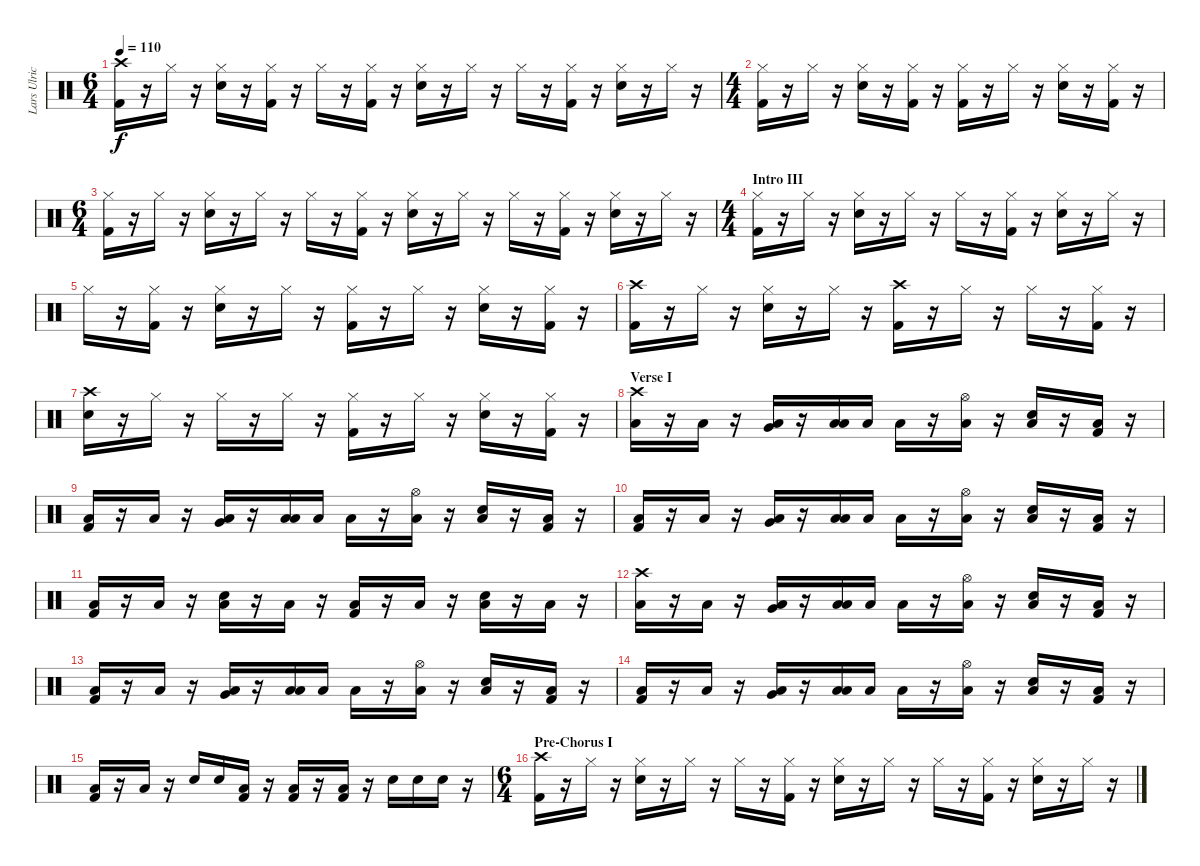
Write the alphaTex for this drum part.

\track ("Lars Ulrich - Drums" "Lars Ulric") {instrument percussion}
\staff {score}
\articulation defaults
\ts (6 4)
\tempo 110
\clef neutral
\ks c
("Crash high (hit)" "Kick (hit) 2").16{dy f} r.16 "Hi-Hat (closed)".16 r.16 ("Hi-Hat (closed)" "Snare (hit) 2").16 r.16 ("Hi-Hat (closed)" "Kick (hit) 2").16 r.16 "Hi-Hat (closed)".16 r.16 ("Hi-Hat (closed)" "Kick (hit) 2").16 r.16 ("Hi-Hat (closed)" "Snare (hit) 2").16 r.16 "Hi-Hat (closed)".16 r.16 "Hi-Hat (closed)".16 r.16 ("Hi-Hat (closed)" "Kick (hit) 2").16 r.16 ("Hi-Hat (closed)" "Snare (hit) 2").16 r.16 "Hi-Hat (closed)".16 r.16 |
\ts (4 4)
("Hi-Hat (closed)" "Kick (hit) 2").16 r.16 "Hi-Hat (closed)".16 r.16 ("Hi-Hat (closed)" "Snare (hit) 2").16 r.16 ("Hi-Hat (closed)" "Kick (hit) 2").16 r.16 ("Hi-Hat (closed)" "Kick (hit) 2").16 r.16 "Hi-Hat (closed)".16 r.16 ("Hi-Hat (closed)" "Snare (hit) 2").16 r.16 ("Hi-Hat (closed)" "Kick (hit) 2").16 r.16 |
\ts (6 4)
("Hi-Hat (closed)" "Kick (hit) 2").16 r.16 "Hi-Hat (closed)".16 r.16 ("Hi-Hat (closed)" "Snare (hit) 2").16 r.16 "Hi-Hat (closed)".16 r.16 "Hi-Hat (closed)".16 r.16 ("Hi-Hat (closed)" "Kick (hit) 2").16 r.16 ("Hi-Hat (closed)" "Snare (hit) 2").16 r.16 "Hi-Hat (closed)".16 r.16 "Hi-Hat (closed)".16 r.16 ("Hi-Hat (closed)" "Kick (hit) 2").16 r.16 ("Hi-Hat (closed)" "Snare (hit) 2").16 r.16 "Hi-Hat (closed)".16 r.16 |
\ts (4 4)
\section ("" "Intro III")
("Hi-Hat (closed)" "Kick (hit) 2").16 r.16 "Hi-Hat (closed)".16 r.16 ("Hi-Hat (closed)" "Snare (hit) 2").16 r.16 "Hi-Hat (closed)".16 r.16 "Hi-Hat (closed)".16 r.16 ("Hi-Hat (closed)" "Kick (hit) 2").16 r.16 ("Hi-Hat (closed)" "Snare (hit) 2").16 r.16 "Hi-Hat (closed)".16 r.16 |
"Hi-Hat (closed)".16 r.16 ("Hi-Hat (closed)" "Kick (hit) 2").16 r.16 ("Hi-Hat (closed)" "Snare (hit) 2").16 r.16 "Hi-Hat (closed)".16 r.16 ("Hi-Hat (closed)" "Kick (hit) 2").16 r.16 "Hi-Hat (closed)".16 r.16 ("Hi-Hat (closed)" "Snare (hit) 2").16 r.16 ("Hi-Hat (closed)" "Kick (hit) 2").16 r.16 |
("Crash high (hit)" "Kick (hit) 2").16 r.16 "Hi-Hat (closed)".16 r.16 ("Hi-Hat (closed)" "Snare (hit) 2").16 r.16 "Hi-Hat (closed)".16 r.16 ("Crash high (hit)" "Kick (hit) 2").16 r.16 "Hi-Hat (closed)".16 r.16 "Hi-Hat (closed)".16 r.16 ("Hi-Hat (closed)" "Kick (hit) 2").16 r.16 |
("Crash high (hit)" "Snare (hit) 2").16 r.16 "Hi-Hat (closed)".16 r.16 "Hi-Hat (closed)".16 r.16 "Hi-Hat (closed)".16 r.16 ("Hi-Hat (closed)" "Kick (hit) 2").16 r.16 "Hi-Hat (closed)".16 r.16 ("Hi-Hat (closed)" "Snare (hit) 2").16 r.16 ("Hi-Hat (closed)" "Kick (hit) 2").16 r.16 |
\section ("" "Verse I")
("Crash high (hit)" "Low Floor Tom (hit)").16 r.16 "Low Floor Tom (hit)".16 r.16 ("Very Low Tom (hit)" "Low Floor Tom (hit)").16 r.16 ("Low Tom (hit)" "Low Floor Tom (hit)").16 "Low Tom (hit)".16 "Low Floor Tom (hit)".16 r.16 ("Hi-Hat (open)" "Low Floor Tom (hit)").16 r.16 ("Snare (hit) 2" "Low Floor Tom (hit)").16 r.16 ("Kick (hit) 2" "Low Floor Tom (hit)").16 r.16 |
("Kick (hit) 2" "Low Floor Tom (hit)").16 r.16 "Low Floor Tom (hit)".16 r.16 ("Very Low Tom (hit)" "Low Floor Tom (hit)").16 r.16 ("Low Tom (hit)" "Low Floor Tom (hit)").16 "Low Tom (hit)".16 "Low Floor Tom (hit)".16 r.16 ("Hi-Hat (open)" "Low Floor Tom (hit)").16 r.16 ("Snare (hit) 2" "Low Floor Tom (hit)").16 r.16 ("Kick (hit) 2" "Low Floor Tom (hit)").16 r.16 |
("Kick (hit) 2" "Low Floor Tom (hit)").16 r.16 "Low Floor Tom (hit)".16 r.16 ("Very Low Tom (hit)" "Low Floor Tom (hit)").16 r.16 ("Low Tom (hit)" "Low Floor Tom (hit)").16 "Low Tom (hit)".16 "Low Floor Tom (hit)".16 r.16 ("Hi-Hat (open)" "Low Floor Tom (hit)").16 r.16 ("Snare (hit) 2" "Low Floor Tom (hit)").16 r.16 ("Kick (hit) 2" "Low Floor Tom (hit)").16 r.16 |
("Kick (hit) 2" "Low Floor Tom (hit)").16 r.16 "Low Floor Tom (hit)".16 r.16 ("Snare (hit) 2" "Low Floor Tom (hit)").16 r.16 "Low Floor Tom (hit)".16 r.16 ("Kick (hit) 2" "Low Floor Tom (hit)").16 r.16 "Low Floor Tom (hit)".16 r.16 ("Snare (hit) 2" "Low Floor Tom (hit)").16 r.16 "Low Floor Tom (hit)".16 r.16 |
("Crash high (hit)" "Low Floor Tom (hit)").16 r.16 "Low Floor Tom (hit)".16 r.16 ("Very Low Tom (hit)" "Low Floor Tom (hit)").16 r.16 ("Low Tom (hit)" "Low Floor Tom (hit)").16 "Low Tom (hit)".16 "Low Floor Tom (hit)".16 r.16 ("Hi-Hat (open)" "Low Floor Tom (hit)").16 r.16 ("Snare (hit) 2" "Low Floor Tom (hit)").16 r.16 ("Kick (hit) 2" "Low Floor Tom (hit)").16 r.16 |
("Kick (hit) 2" "Low Floor Tom (hit)").16 r.16 "Low Floor Tom (hit)".16 r.16 ("Very Low Tom (hit)" "Low Floor Tom (hit)").16 r.16 ("Low Tom (hit)" "Low Floor Tom (hit)").16 "Low Tom (hit)".16 "Low Floor Tom (hit)".16 r.16 ("Hi-Hat (open)" "Low Floor Tom (hit)").16 r.16 ("Snare (hit) 2" "Low Floor Tom (hit)").16 r.16 ("Kick (hit) 2" "Low Floor Tom (hit)").16 r.16 |
("Kick (hit) 2" "Low Floor Tom (hit)").16 r.16 "Low Floor Tom (hit)".16 r.16 ("Very Low Tom (hit)" "Low Floor Tom (hit)").16 r.16 ("Low Tom (hit)" "Low Floor Tom (hit)").16 "Low Tom (hit)".16 "Low Floor Tom (hit)".16 r.16 ("Hi-Hat (open)" "Low Floor Tom (hit)").16 r.16 ("Snare (hit) 2" "Low Floor Tom (hit)").16 r.16 ("Kick (hit) 2" "Low Floor Tom (hit)").16 r.16 |
("Kick (hit) 2" "Low Floor Tom (hit)").16 r.16 "Low Floor Tom (hit)".16 r.16 "Snare (hit) 2".16 "Snare (hit) 2".16 ("Kick (hit) 2" "Low Floor Tom (hit)").16 r.16 ("Kick (hit) 2" "Low Floor Tom (hit)").16 r.16 ("Kick (hit) 2" "Low Floor Tom (hit)").16 r.16 "Snare (hit) 2".16 "Snare (hit) 2".16 "Snare (hit) 2".16 r.16 |
\ts (6 4)
\section ("" "Pre-Chorus I")
("Crash high (hit)" "Kick (hit) 2").16 r.16 "Hi-Hat (closed)".16 r.16 ("Hi-Hat (closed)" "Snare (hit) 2").16 r.16 "Hi-Hat (closed)".16 r.16 "Hi-Hat (closed)".16 r.16 ("Hi-Hat (closed)" "Kick (hit) 2").16 r.16 ("Hi-Hat (closed)" "Snare (hit) 2").16 r.16 "Hi-Hat (closed)".16 r.16 "Hi-Hat (closed)".16 r.16 ("Hi-Hat (closed)" "Kick (hit) 2").16 r.16 ("Hi-Hat (closed)" "Snare (hit) 2").16 r.16 "Hi-Hat (closed)".16 r.16
